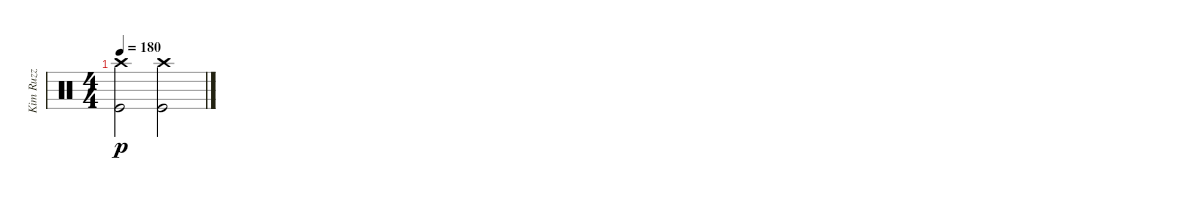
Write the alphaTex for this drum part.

\track ("Kim Ruzz" "Kim Ruzz") {instrument percussion}
\staff {score}
\articulation defaults
\ts (4 4)
\tempo 180
\clef neutral
\ks c
("Crash high (hit)" "Kick (hit)").2{dy p} ("Crash high (hit)" "Kick (hit)").2
